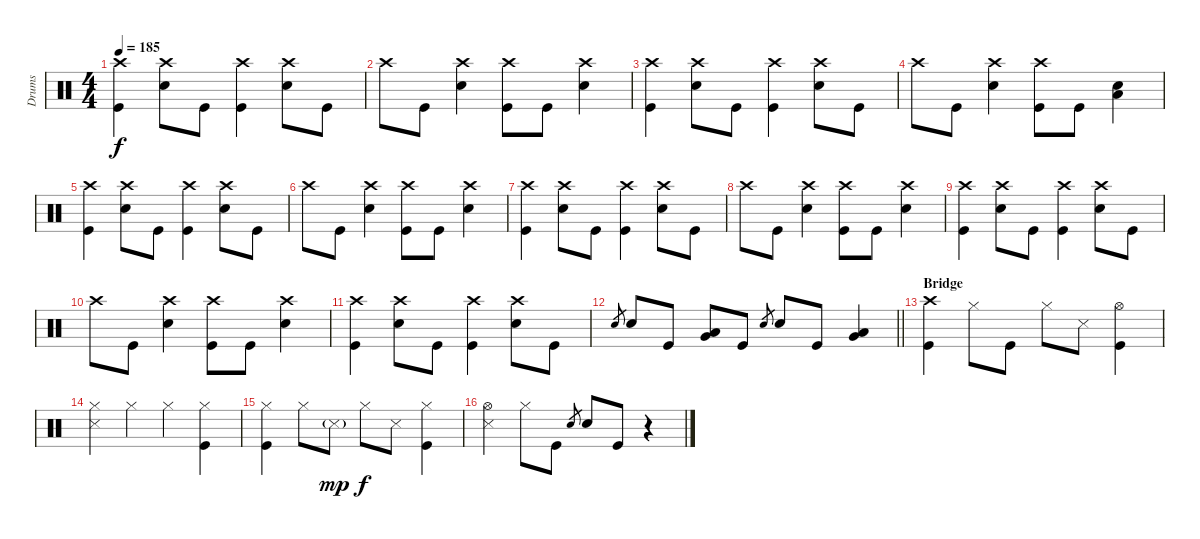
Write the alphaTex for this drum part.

\track ("Drums" "Drums") {instrument percussion}
\staff {score}
\articulation defaults
\ts (4 4)
\tempo 185
\clef neutral
\ks c
("Crash high (hit)" "Kick (hit)").4{dy f} ("Crash high (hit)" "Snare (hit) 2").8 "Kick (hit)".8 ("Crash high (hit)" "Kick (hit)").4 ("Crash high (hit)" "Snare (hit) 2").8 "Kick (hit)".8 |
"Crash high (hit)".8 "Kick (hit)".8 ("Crash high (hit)" "Snare (hit) 2").4 ("Crash high (hit)" "Kick (hit)").8 "Kick (hit)".8 ("Crash high (hit)" "Snare (hit) 2").4 |
("Crash high (hit)" "Kick (hit)").4 ("Crash high (hit)" "Snare (hit) 2").8 "Kick (hit)".8 ("Crash high (hit)" "Kick (hit)").4 ("Crash high (hit)" "Snare (hit) 2").8 "Kick (hit)".8 |
"Crash high (hit)".8 "Kick (hit)".8 ("Crash high (hit)" "Snare (hit) 2").4 ("Crash high (hit)" "Kick (hit)").8 "Kick (hit)".8 ("Snare (hit) 2" "Low Floor Tom (hit)").4 |
("Crash high (hit)" "Kick (hit)").4 ("Crash high (hit)" "Snare (hit) 2").8 "Kick (hit)".8 ("Crash high (hit)" "Kick (hit)").4 ("Crash high (hit)" "Snare (hit) 2").8 "Kick (hit)".8 |
"Crash high (hit)".8 "Kick (hit)".8 ("Crash high (hit)" "Snare (hit) 2").4 ("Crash high (hit)" "Kick (hit)").8 "Kick (hit)".8 ("Crash high (hit)" "Snare (hit) 2").4 |
("Crash high (hit)" "Kick (hit)").4 ("Crash high (hit)" "Snare (hit) 2").8 "Kick (hit)".8 ("Crash high (hit)" "Kick (hit)").4 ("Crash high (hit)" "Snare (hit) 2").8 "Kick (hit)".8 |
"Crash high (hit)".8 "Kick (hit)".8 ("Crash high (hit)" "Snare (hit) 2").4 ("Crash high (hit)" "Kick (hit)").8 "Kick (hit)".8 ("Crash high (hit)" "Snare (hit) 2").4 |
("Crash high (hit)" "Kick (hit)").4 ("Crash high (hit)" "Snare (hit) 2").8 "Kick (hit)".8 ("Crash high (hit)" "Kick (hit)").4 ("Crash high (hit)" "Snare (hit) 2").8 "Kick (hit)".8 |
"Crash high (hit)".8 "Kick (hit)".8 ("Crash high (hit)" "Snare (hit) 2").4 ("Crash high (hit)" "Kick (hit)").8 "Kick (hit)".8 ("Crash high (hit)" "Snare (hit) 2").4 |
("Crash high (hit)" "Kick (hit)").4 ("Crash high (hit)" "Snare (hit) 2").8 "Kick (hit)".8 ("Crash high (hit)" "Kick (hit)").4 ("Crash high (hit)" "Snare (hit) 2").8 "Kick (hit)".8 |
\barLineRight lightlight "Snare (hit) 2".8{gr} "Snare (hit) 2".8 "Kick (hit)".8
("Very Low Tom (hit)" "Low Tom (hit)").8 "Kick (hit)".8 "Snare (hit) 2".8{gr} "Snare (hit) 2".8 "Kick (hit)".8 ("Very Low Tom (hit)" "Low Tom (hit)").4 |
\section ("" "Bridge")
("Crash high (hit)" "Kick (hit)").4 "Hi-Hat (closed)".8 "Kick (hit)".8 "Hi-Hat (closed)".8 "Snare (side stick) 3".8 ("Hi-Hat (open)" "Kick (hit)").4 |
("Hi-Hat (closed)" "Snare (side stick) 3").4 "Hi-Hat (closed)".4 "Hi-Hat (closed)".4 ("Hi-Hat (closed)" "Kick (hit)").4 |
("Hi-Hat (closed)" "Kick (hit)").4 "Hi-Hat (closed)".8 "Snare (side stick) 3"{g}.8{dy mp} "Hi-Hat (closed)".8{dy f} "Snare (side stick) 3".8 ("Hi-Hat (closed)" "Kick (hit)").4 |
("Hi-Hat (open)" "Snare (side stick) 3").4 "Hi-Hat (closed)".8 "Kick (hit)".8 "Snare (hit) 2".8{gr} "Snare (hit) 2".8 "Kick (hit)".8 r.4
